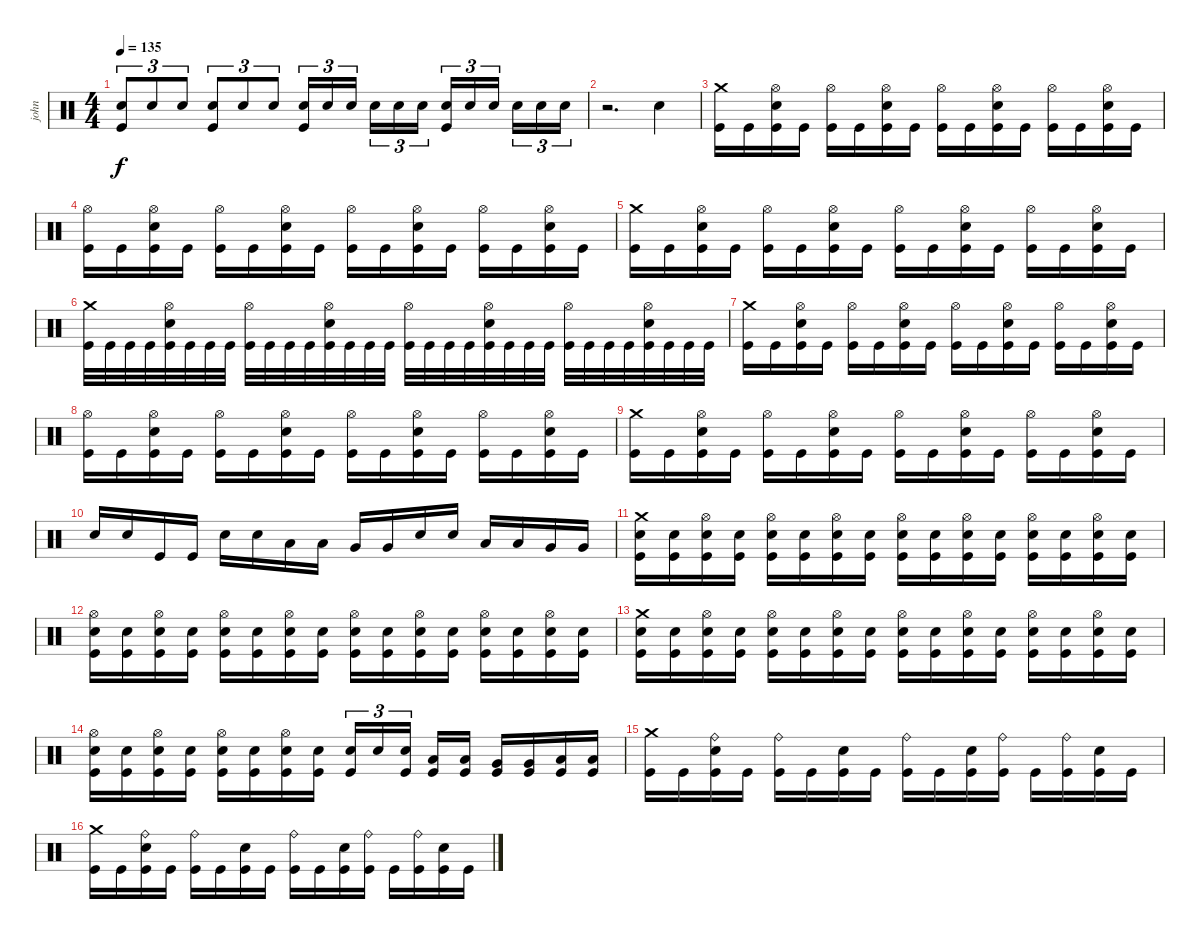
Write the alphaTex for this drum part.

\track ("john" "john") {instrument percussion}
\staff {score}
\articulation defaults
\ts (4 4)
\tempo 135
\clef neutral
\ks c
("Snare (hit) 2" "Kick (hit)").8{tu (3 2) dy f} "Snare (hit) 2".8{tu (3 2)} "Snare (hit) 2".8{tu (3 2)} ("Snare (hit) 2" "Kick (hit)").8{tu (3 2)} "Snare (hit) 2".8{tu (3 2)} "Snare (hit) 2".8{tu (3 2)} ("Snare (hit) 2" "Kick (hit)").16{tu (3 2)} "Snare (hit) 2".16{tu (3 2)} "Snare (hit) 2".16{tu (3 2)} "Snare (hit) 2".16{tu (3 2)} "Snare (hit) 2".16{tu (3 2)} "Snare (hit) 2".16{tu (3 2)} ("Snare (hit) 2" "Kick (hit)").16{tu (3 2)} "Snare (hit) 2".16{tu (3 2)} "Snare (hit) 2".16{tu (3 2)} "Snare (hit) 2".16{tu (3 2)} "Snare (hit) 2".16{tu (3 2)} "Snare (hit) 2".16{tu (3 2)} |
r.2{d} "Snare (hit) 2".4 |
("Kick (hit)" "Crash medium (hit)").16 "Kick (hit)".16 ("Kick (hit)" "Hi-Hat (open)" "Snare (hit) 2").16 "Kick (hit)".16 ("Kick (hit)" "Hi-Hat (open)").16 "Kick (hit)".16 ("Kick (hit)" "Hi-Hat (open)" "Snare (hit) 2").16 "Kick (hit)".16 ("Kick (hit)" "Hi-Hat (open)").16 "Kick (hit)".16 ("Kick (hit)" "Snare (hit) 2" "Hi-Hat (open)").16 "Kick (hit)".16 ("Kick (hit)" "Hi-Hat (open)").16 "Kick (hit)".16 ("Kick (hit)" "Snare (hit) 2" "Hi-Hat (open)").16 "Kick (hit)".16 |
("Kick (hit)" "Hi-Hat (open)").16 "Kick (hit)".16 ("Kick (hit)" "Hi-Hat (open)" "Snare (hit) 2").16 "Kick (hit)".16 ("Kick (hit)" "Hi-Hat (open)").16 "Kick (hit)".16 ("Kick (hit)" "Hi-Hat (open)" "Snare (hit) 2").16 "Kick (hit)".16 ("Kick (hit)" "Hi-Hat (open)").16 "Kick (hit)".16 ("Kick (hit)" "Snare (hit) 2" "Hi-Hat (open)").16 "Kick (hit)".16 ("Kick (hit)" "Hi-Hat (open)").16 "Kick (hit)".16 ("Kick (hit)" "Snare (hit) 2" "Hi-Hat (open)").16 "Kick (hit)".16 |
("Kick (hit)" "Crash medium (hit)").16 "Kick (hit)".16 ("Kick (hit)" "Hi-Hat (open)" "Snare (hit) 2").16 "Kick (hit)".16 ("Kick (hit)" "Hi-Hat (open)").16 "Kick (hit)".16 ("Kick (hit)" "Hi-Hat (open)" "Snare (hit) 2").16 "Kick (hit)".16 ("Kick (hit)" "Hi-Hat (open)").16 "Kick (hit)".16 ("Kick (hit)" "Snare (hit) 2" "Hi-Hat (open)").16 "Kick (hit)".16 ("Kick (hit)" "Hi-Hat (open)").16 "Kick (hit)".16 ("Kick (hit)" "Snare (hit) 2" "Hi-Hat (open)").16 "Kick (hit)".16 |
("Kick (hit)" "Crash medium (hit)").32 "Kick (hit)".32 "Kick (hit)".32 "Kick (hit)".32 ("Kick (hit)" "Snare (hit) 2" "Hi-Hat (open)").32 "Kick (hit)".32 "Kick (hit)".32 "Kick (hit)".32 ("Kick (hit)" "Hi-Hat (open)").32 "Kick (hit)".32 "Kick (hit)".32 "Kick (hit)".32 ("Kick (hit)" "Hi-Hat (open)" "Snare (hit) 2").32 "Kick (hit)".32 "Kick (hit)".32 "Kick (hit)".32 ("Kick (hit)" "Hi-Hat (open)").32 "Kick (hit)".32 "Kick (hit)".32 "Kick (hit)".32 ("Kick (hit)" "Hi-Hat (open)" "Snare (hit) 2").32 "Kick (hit)".32 "Kick (hit)".32 "Kick (hit)".32 ("Kick (hit)" "Hi-Hat (open)").32 "Kick (hit)".32 "Kick (hit)".32 "Kick (hit)".32 ("Kick (hit)" "Hi-Hat (open)" "Snare (hit) 2").32 "Kick (hit)".32 "Kick (hit)".32 "Kick (hit)".32 |
("Kick (hit)" "Crash medium (hit)").16 "Kick (hit)".16 ("Kick (hit)" "Hi-Hat (open)" "Snare (hit) 2").16 "Kick (hit)".16 ("Kick (hit)" "Hi-Hat (open)").16 "Kick (hit)".16 ("Kick (hit)" "Hi-Hat (open)" "Snare (hit) 2").16 "Kick (hit)".16 ("Kick (hit)" "Hi-Hat (open)").16 "Kick (hit)".16 ("Kick (hit)" "Snare (hit) 2" "Hi-Hat (open)").16 "Kick (hit)".16 ("Kick (hit)" "Hi-Hat (open)").16 "Kick (hit)".16 ("Kick (hit)" "Snare (hit) 2" "Hi-Hat (open)").16 "Kick (hit)".16 |
("Kick (hit)" "Hi-Hat (open)").16 "Kick (hit)".16 ("Kick (hit)" "Hi-Hat (open)" "Snare (hit) 2").16 "Kick (hit)".16 ("Kick (hit)" "Hi-Hat (open)").16 "Kick (hit)".16 ("Kick (hit)" "Hi-Hat (open)" "Snare (hit) 2").16 "Kick (hit)".16 ("Kick (hit)" "Hi-Hat (open)").16 "Kick (hit)".16 ("Kick (hit)" "Snare (hit) 2" "Hi-Hat (open)").16 "Kick (hit)".16 ("Kick (hit)" "Hi-Hat (open)").16 "Kick (hit)".16 ("Kick (hit)" "Snare (hit) 2" "Hi-Hat (open)").16 "Kick (hit)".16 |
("Kick (hit)" "Crash medium (hit)").16 "Kick (hit)".16 ("Kick (hit)" "Hi-Hat (open)" "Snare (hit) 2").16 "Kick (hit)".16 ("Kick (hit)" "Hi-Hat (open)").16 "Kick (hit)".16 ("Kick (hit)" "Hi-Hat (open)" "Snare (hit) 2").16 "Kick (hit)".16 ("Kick (hit)" "Hi-Hat (open)").16 "Kick (hit)".16 ("Kick (hit)" "Snare (hit) 2" "Hi-Hat (open)").16 "Kick (hit)".16 ("Kick (hit)" "Hi-Hat (open)").16 "Kick (hit)".16 ("Kick (hit)" "Snare (hit) 2" "Hi-Hat (open)").16 "Kick (hit)".16 |
"Snare (hit) 2".16 "Snare (hit) 2".16 "Kick (hit)".16 "Kick (hit)".16 "Snare (hit) 2".16 "Snare (hit) 2".16 "Low Tom (hit)".16 "Low Tom (hit)".16 "Very Low Tom (hit)".16 "Very Low Tom (hit)".16 "Snare (hit) 2".16 "Snare (hit) 2".16 "Low Tom (hit)".16 "Low Tom (hit)".16 "Very Low Tom (hit)".16 "Very Low Tom (hit)".16 |
("Kick (hit)" "Snare (hit) 2" "Crash medium (hit)").16 ("Kick (hit)" "Snare (hit) 2").16 ("Kick (hit)" "Snare (hit) 2" "Hi-Hat (open)").16 ("Kick (hit)" "Snare (hit) 2").16 ("Kick (hit)" "Snare (hit) 2" "Hi-Hat (open)").16 ("Kick (hit)" "Snare (hit) 2").16 ("Kick (hit)" "Snare (hit) 2" "Hi-Hat (open)").16 ("Kick (hit)" "Snare (hit) 2").16 ("Kick (hit)" "Snare (hit) 2" "Hi-Hat (open)").16 ("Kick (hit)" "Snare (hit) 2").16 ("Kick (hit)" "Snare (hit) 2" "Hi-Hat (open)").16 ("Kick (hit)" "Snare (hit) 2").16 ("Kick (hit)" "Snare (hit) 2" "Hi-Hat (open)").16 ("Kick (hit)" "Snare (hit) 2").16 ("Kick (hit)" "Snare (hit) 2" "Hi-Hat (open)").16 ("Kick (hit)" "Snare (hit) 2").16 |
("Kick (hit)" "Snare (hit) 2" "Hi-Hat (open)").16 ("Kick (hit)" "Snare (hit) 2").16 ("Kick (hit)" "Snare (hit) 2" "Hi-Hat (open)").16 ("Kick (hit)" "Snare (hit) 2").16 ("Kick (hit)" "Snare (hit) 2" "Hi-Hat (open)").16 ("Kick (hit)" "Snare (hit) 2").16 ("Kick (hit)" "Snare (hit) 2" "Hi-Hat (open)").16 ("Kick (hit)" "Snare (hit) 2").16 ("Kick (hit)" "Snare (hit) 2" "Hi-Hat (open)").16 ("Kick (hit)" "Snare (hit) 2").16 ("Kick (hit)" "Snare (hit) 2" "Hi-Hat (open)").16 ("Kick (hit)" "Snare (hit) 2").16 ("Kick (hit)" "Snare (hit) 2" "Hi-Hat (open)").16 ("Kick (hit)" "Snare (hit) 2").16 ("Kick (hit)" "Snare (hit) 2" "Hi-Hat (open)").16 ("Kick (hit)" "Snare (hit) 2").16 |
("Kick (hit)" "Snare (hit) 2" "Crash medium (hit)").16 ("Kick (hit)" "Snare (hit) 2").16 ("Kick (hit)" "Snare (hit) 2" "Hi-Hat (open)").16 ("Kick (hit)" "Snare (hit) 2").16 ("Kick (hit)" "Snare (hit) 2" "Hi-Hat (open)").16 ("Kick (hit)" "Snare (hit) 2").16 ("Kick (hit)" "Snare (hit) 2" "Hi-Hat (open)").16 ("Kick (hit)" "Snare (hit) 2").16 ("Kick (hit)" "Snare (hit) 2" "Hi-Hat (open)").16 ("Kick (hit)" "Snare (hit) 2").16 ("Kick (hit)" "Snare (hit) 2" "Hi-Hat (open)").16 ("Kick (hit)" "Snare (hit) 2").16 ("Kick (hit)" "Snare (hit) 2" "Hi-Hat (open)").16 ("Kick (hit)" "Snare (hit) 2").16 ("Kick (hit)" "Snare (hit) 2" "Hi-Hat (open)").16 ("Kick (hit)" "Snare (hit) 2").16 |
("Kick (hit)" "Snare (hit) 2" "Hi-Hat (open)").16 ("Kick (hit)" "Snare (hit) 2").16 ("Kick (hit)" "Snare (hit) 2" "Hi-Hat (open)").16 ("Kick (hit)" "Snare (hit) 2").16 ("Kick (hit)" "Snare (hit) 2" "Hi-Hat (open)").16 ("Kick (hit)" "Snare (hit) 2").16 ("Kick (hit)" "Snare (hit) 2" "Hi-Hat (open)").16 ("Kick (hit)" "Snare (hit) 2").16 ("Kick (hit)" "Snare (hit) 2").16{tu (3 2)} "Snare (hit) 2".16{tu (3 2)} ("Kick (hit)" "Snare (hit) 2").16{tu (3 2)} ("Kick (hit)" "Low Tom (hit)").16 ("Kick (hit)" "Low Tom (hit)").16 ("Kick (hit)" "Very Low Tom (hit)").16 ("Kick (hit)" "Very Low Tom (hit)").16 ("Kick (hit)" "Low Floor Tom (hit)").16 ("Kick (hit)" "Low Floor Tom (hit)").16 |
("Kick (hit)" "Crash medium (hit)").16 "Kick (hit)".16 ("Kick (hit)" "Ride (bell)" "Snare (hit) 2").16 "Kick (hit)".16 ("Kick (hit)" "Ride (bell)").16 "Kick (hit)".16 ("Kick (hit)" "Snare (hit) 2").16 "Kick (hit)".16 ("Kick (hit)" "Ride (bell)").16 "Kick (hit)".16 ("Kick (hit)" "Snare (hit) 2").16 ("Kick (hit)" "Ride (bell)").16 "Kick (hit)".16 ("Kick (hit)" "Ride (bell)").16 ("Kick (hit)" "Snare (hit) 2").16 "Kick (hit)".16 |
("Kick (hit)" "Crash medium (hit)").16 "Kick (hit)".16 ("Kick (hit)" "Ride (bell)" "Snare (hit) 2").16 "Kick (hit)".16 ("Kick (hit)" "Ride (bell)").16 "Kick (hit)".16 ("Kick (hit)" "Snare (hit) 2").16 "Kick (hit)".16 ("Kick (hit)" "Ride (bell)").16 "Kick (hit)".16 ("Kick (hit)" "Snare (hit) 2").16 ("Kick (hit)" "Ride (bell)").16 "Kick (hit)".16 ("Kick (hit)" "Ride (bell)").16 ("Kick (hit)" "Snare (hit) 2").16 "Kick (hit)".16
